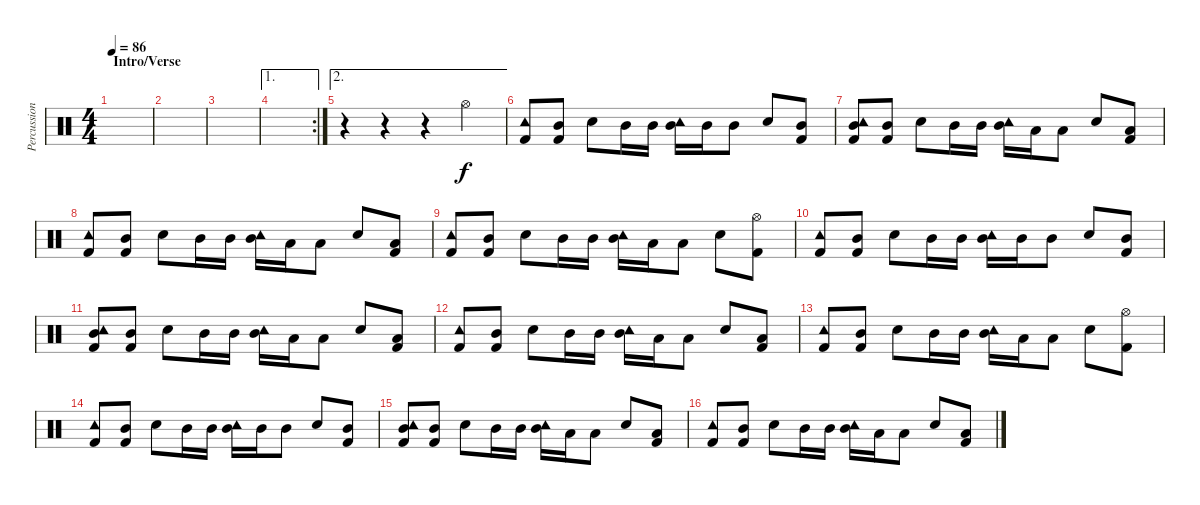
\track ("Percussion" "Percussion") {instrument percussion}
\staff {score}
\articulation defaults
\ts (4 4)
\section ("" "Intro/Verse")
\tempo 86
\clef neutral
\ks c
|
|
|
\ae 1
\rc 2
|
\ae 2
r.4 r.4 r.4 "Hi-Hat (open)".4 |
("Tambourine (hit)" "Kick (hit) 2").8 ("Mid Tom (hit)" "Kick (hit) 2").8 "Snare (hit) 2".8 "Mid Tom (hit)".16 "Mid Tom (hit)".16 ("Tambourine (hit)" "Mid Tom (hit)").16 "Mid Tom (hit)".16 "Mid Tom (hit)".8 "Snare (hit) 2".8 ("Mid Tom (hit)" "Kick (hit) 2").8 |
("Tambourine (hit)" "Mid Tom (hit)" "Kick (hit) 2").8 ("Mid Tom (hit)" "Kick (hit) 2").8 "Snare (hit) 2".8 "Mid Tom (hit)".16 "Mid Tom (hit)".16 ("Tambourine (hit)" "Mid Tom (hit)").16 "Low Tom (hit)".16 "Low Tom (hit)".8 "Snare (hit) 2".8 ("Low Tom (hit)" "Kick (hit) 2").8 |
("Tambourine (hit)" "Kick (hit) 2").8 ("Mid Tom (hit)" "Kick (hit) 2").8 "Snare (hit) 2".8 "Mid Tom (hit)".16 "Mid Tom (hit)".16 ("Tambourine (hit)" "Mid Tom (hit)").16 "Low Tom (hit)".16 "Low Tom (hit)".8 "Snare (hit) 2".8 ("Low Tom (hit)" "Kick (hit) 2").8 |
("Tambourine (hit)" "Kick (hit) 2").8 ("Mid Tom (hit)" "Kick (hit) 2").8 "Snare (hit) 2".8 "Mid Tom (hit)".16 "Mid Tom (hit)".16 ("Tambourine (hit)" "Mid Tom (hit)").16 "Low Tom (hit)".16 "Low Tom (hit)".8 "Snare (hit) 2".8 ("Hi-Hat (open)" "Kick (hit) 2").8 |
("Tambourine (hit)" "Kick (hit) 2").8 ("Mid Tom (hit)" "Kick (hit) 2").8 "Snare (hit) 2".8 "Mid Tom (hit)".16 "Mid Tom (hit)".16 ("Tambourine (hit)" "Mid Tom (hit)").16 "Mid Tom (hit)".16 "Mid Tom (hit)".8 "Snare (hit) 2".8 ("Mid Tom (hit)" "Kick (hit) 2").8 |
("Tambourine (hit)" "Mid Tom (hit)" "Kick (hit) 2").8 ("Mid Tom (hit)" "Kick (hit) 2").8 "Snare (hit) 2".8 "Mid Tom (hit)".16 "Mid Tom (hit)".16 ("Tambourine (hit)" "Mid Tom (hit)").16 "Low Tom (hit)".16 "Low Tom (hit)".8 "Snare (hit) 2".8 ("Low Tom (hit)" "Kick (hit) 2").8 |
("Tambourine (hit)" "Kick (hit) 2").8 ("Mid Tom (hit)" "Kick (hit) 2").8 "Snare (hit) 2".8 "Mid Tom (hit)".16 "Mid Tom (hit)".16 ("Tambourine (hit)" "Mid Tom (hit)").16 "Low Tom (hit)".16 "Low Tom (hit)".8 "Snare (hit) 2".8 ("Low Tom (hit)" "Kick (hit) 2").8 |
("Tambourine (hit)" "Kick (hit) 2").8 ("Mid Tom (hit)" "Kick (hit) 2").8 "Snare (hit) 2".8 "Mid Tom (hit)".16 "Mid Tom (hit)".16 ("Tambourine (hit)" "Mid Tom (hit)").16 "Low Tom (hit)".16 "Low Tom (hit)".8 "Snare (hit) 2".8 ("Hi-Hat (open)" "Kick (hit) 2").8 |
("Tambourine (hit)" "Kick (hit) 2").8 ("Mid Tom (hit)" "Kick (hit) 2").8 "Snare (hit) 2".8 "Mid Tom (hit)".16 "Mid Tom (hit)".16 ("Tambourine (hit)" "Mid Tom (hit)").16 "Mid Tom (hit)".16 "Mid Tom (hit)".8 "Snare (hit) 2".8 ("Mid Tom (hit)" "Kick (hit) 2").8 |
("Tambourine (hit)" "Mid Tom (hit)" "Kick (hit) 2").8 ("Mid Tom (hit)" "Kick (hit) 2").8 "Snare (hit) 2".8 "Mid Tom (hit)".16 "Mid Tom (hit)".16 ("Tambourine (hit)" "Mid Tom (hit)").16 "Low Tom (hit)".16 "Low Tom (hit)".8 "Snare (hit) 2".8 ("Low Tom (hit)" "Kick (hit) 2").8 |
("Tambourine (hit)" "Kick (hit) 2").8 ("Mid Tom (hit)" "Kick (hit) 2").8 "Snare (hit) 2".8 "Mid Tom (hit)".16 "Mid Tom (hit)".16 ("Tambourine (hit)" "Mid Tom (hit)").16 "Low Tom (hit)".16 "Low Tom (hit)".8 "Snare (hit) 2".8 ("Low Tom (hit)" "Kick (hit) 2").8
